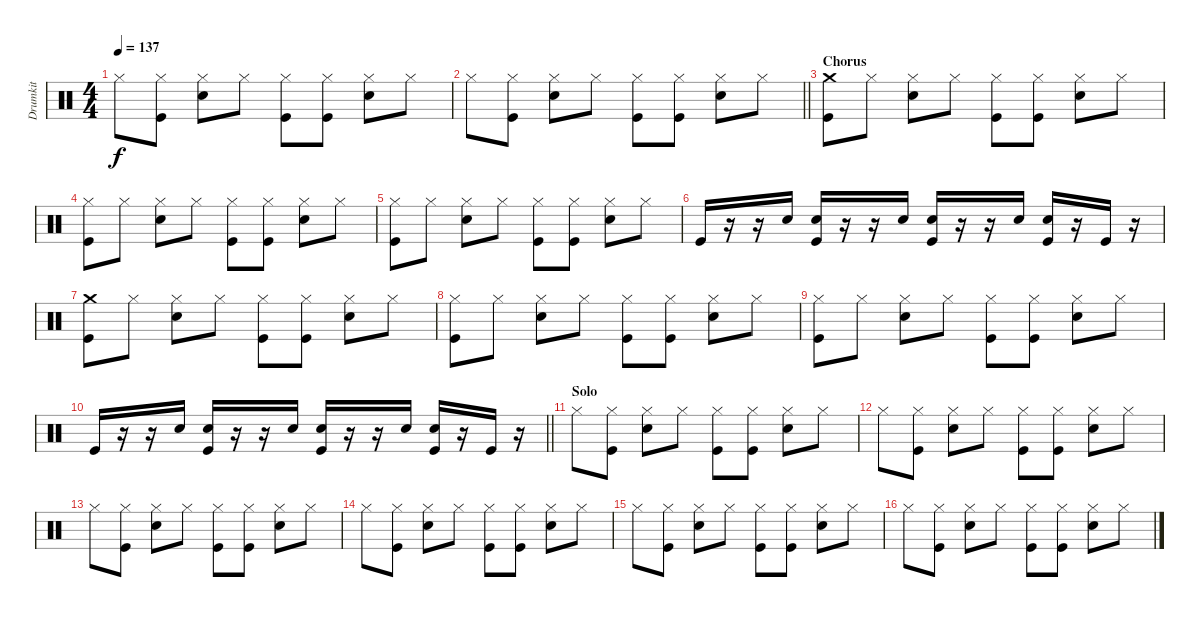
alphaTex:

\track ("Drumkit" "Drumkit") {instrument percussion}
\staff {score}
\articulation defaults
\ts (4 4)
\tempo 137
\clef neutral
\ks c "Hi-Hat (closed)".8{dy f}
("Hi-Hat (closed)" "Kick (hit)").8 ("Hi-Hat (closed)" "Snare (hit) 2").8 "Hi-Hat (closed)".8 ("Hi-Hat (closed)" "Kick (hit)").8 ("Hi-Hat (closed)" "Kick (hit)").8 ("Hi-Hat (closed)" "Snare (hit) 2").8 "Hi-Hat (closed)".8 |
\barLineRight lightlight "Hi-Hat (closed)".8
("Hi-Hat (closed)" "Kick (hit)").8 ("Hi-Hat (closed)" "Snare (hit) 2").8 "Hi-Hat (closed)".8 ("Hi-Hat (closed)" "Kick (hit)").8 ("Hi-Hat (closed)" "Kick (hit)").8 ("Hi-Hat (closed)" "Snare (hit) 2").8 "Hi-Hat (closed)".8 |
\section ("" "Chorus")
("Crash medium (hit)" "Kick (hit)").8 "Hi-Hat (closed)".8 ("Hi-Hat (closed)" "Snare (hit) 2").8 "Hi-Hat (closed)".8 ("Hi-Hat (closed)" "Kick (hit)").8 ("Hi-Hat (closed)" "Kick (hit)").8 ("Hi-Hat (closed)" "Snare (hit) 2").8 "Hi-Hat (closed)".8 |
("Hi-Hat (closed)" "Kick (hit)").8 "Hi-Hat (closed)".8 ("Hi-Hat (closed)" "Snare (hit) 2").8 "Hi-Hat (closed)".8 ("Hi-Hat (closed)" "Kick (hit)").8 ("Hi-Hat (closed)" "Kick (hit)").8 ("Hi-Hat (closed)" "Snare (hit) 2").8 "Hi-Hat (closed)".8 |
("Hi-Hat (closed)" "Kick (hit)").8 "Hi-Hat (closed)".8 ("Hi-Hat (closed)" "Snare (hit) 2").8 "Hi-Hat (closed)".8 ("Hi-Hat (closed)" "Kick (hit)").8 ("Hi-Hat (closed)" "Kick (hit)").8 ("Hi-Hat (closed)" "Snare (hit) 2").8 "Hi-Hat (closed)".8 |
"Kick (hit)".16 r.16 r.16 "Snare (hit) 2".16 ("Snare (hit) 2" "Kick (hit)").16 r.16 r.16 "Snare (hit) 2".16 ("Snare (hit) 2" "Kick (hit)").16 r.16 r.16 "Snare (hit) 2".16 ("Snare (hit) 2" "Kick (hit)").16 r.16 "Kick (hit)".16 r.16 |
("Crash medium (hit)" "Kick (hit)").8 "Hi-Hat (closed)".8 ("Hi-Hat (closed)" "Snare (hit) 2").8 "Hi-Hat (closed)".8 ("Hi-Hat (closed)" "Kick (hit)").8 ("Hi-Hat (closed)" "Kick (hit)").8 ("Hi-Hat (closed)" "Snare (hit) 2").8 "Hi-Hat (closed)".8 |
("Hi-Hat (closed)" "Kick (hit)").8 "Hi-Hat (closed)".8 ("Hi-Hat (closed)" "Snare (hit) 2").8 "Hi-Hat (closed)".8 ("Hi-Hat (closed)" "Kick (hit)").8 ("Hi-Hat (closed)" "Kick (hit)").8 ("Hi-Hat (closed)" "Snare (hit) 2").8 "Hi-Hat (closed)".8 |
("Hi-Hat (closed)" "Kick (hit)").8 "Hi-Hat (closed)".8 ("Hi-Hat (closed)" "Snare (hit) 2").8 "Hi-Hat (closed)".8 ("Hi-Hat (closed)" "Kick (hit)").8 ("Hi-Hat (closed)" "Kick (hit)").8 ("Hi-Hat (closed)" "Snare (hit) 2").8 "Hi-Hat (closed)".8 |
\barLineRight lightlight "Kick (hit)".16
r.16 r.16 "Snare (hit) 2".16 ("Snare (hit) 2" "Kick (hit)").16 r.16 r.16 "Snare (hit) 2".16 ("Snare (hit) 2" "Kick (hit)").16 r.16 r.16 "Snare (hit) 2".16 ("Snare (hit) 2" "Kick (hit)").16 r.16 "Kick (hit)".16 r.16 |
\section ("" "Solo")
"Hi-Hat (closed)".8 ("Hi-Hat (closed)" "Kick (hit)").8 ("Hi-Hat (closed)" "Snare (hit) 2").8 "Hi-Hat (closed)".8 ("Hi-Hat (closed)" "Kick (hit)").8 ("Hi-Hat (closed)" "Kick (hit)").8 ("Hi-Hat (closed)" "Snare (hit) 2").8 "Hi-Hat (closed)".8 |
"Hi-Hat (closed)".8 ("Hi-Hat (closed)" "Kick (hit)").8 ("Hi-Hat (closed)" "Snare (hit) 2").8 "Hi-Hat (closed)".8 ("Hi-Hat (closed)" "Kick (hit)").8 ("Hi-Hat (closed)" "Kick (hit)").8 ("Hi-Hat (closed)" "Snare (hit) 2").8 "Hi-Hat (closed)".8 |
"Hi-Hat (closed)".8 ("Hi-Hat (closed)" "Kick (hit)").8 ("Hi-Hat (closed)" "Snare (hit) 2").8 "Hi-Hat (closed)".8 ("Hi-Hat (closed)" "Kick (hit)").8 ("Hi-Hat (closed)" "Kick (hit)").8 ("Hi-Hat (closed)" "Snare (hit) 2").8 "Hi-Hat (closed)".8 |
"Hi-Hat (closed)".8 ("Hi-Hat (closed)" "Kick (hit)").8 ("Hi-Hat (closed)" "Snare (hit) 2").8 "Hi-Hat (closed)".8 ("Hi-Hat (closed)" "Kick (hit)").8 ("Hi-Hat (closed)" "Kick (hit)").8 ("Hi-Hat (closed)" "Snare (hit) 2").8 "Hi-Hat (closed)".8 |
"Hi-Hat (closed)".8 ("Hi-Hat (closed)" "Kick (hit)").8 ("Hi-Hat (closed)" "Snare (hit) 2").8 "Hi-Hat (closed)".8 ("Hi-Hat (closed)" "Kick (hit)").8 ("Hi-Hat (closed)" "Kick (hit)").8 ("Hi-Hat (closed)" "Snare (hit) 2").8 "Hi-Hat (closed)".8 |
"Hi-Hat (closed)".8 ("Hi-Hat (closed)" "Kick (hit)").8 ("Hi-Hat (closed)" "Snare (hit) 2").8 "Hi-Hat (closed)".8 ("Hi-Hat (closed)" "Kick (hit)").8 ("Hi-Hat (closed)" "Kick (hit)").8 ("Hi-Hat (closed)" "Snare (hit) 2").8 "Hi-Hat (closed)".8
